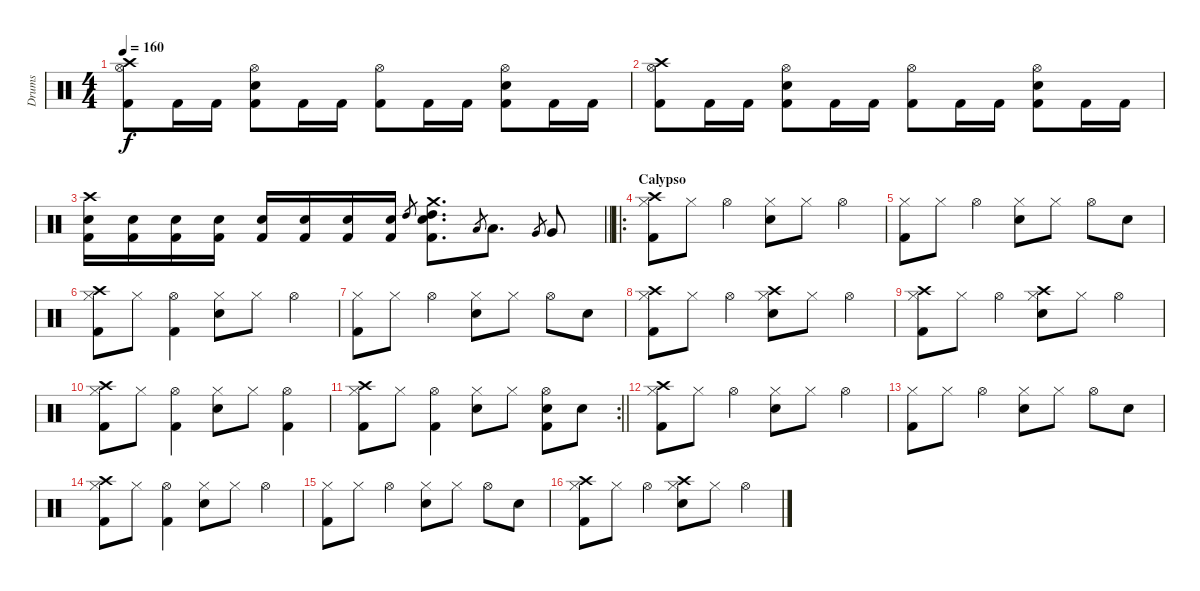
\track ("Drums" "Drums") {instrument percussion}
\staff {score}
\articulation defaults
\ts (4 4)
\tempo 160
\clef neutral
\ks c
("Crash high (hit)" "Hi-Hat (open)" "Kick (hit) 2").8{dy f} "Kick (hit) 2".16 "Kick (hit) 2".16 ("Hi-Hat (open)" "Snare (hit) 2" "Kick (hit) 2").8 "Kick (hit) 2".16 "Kick (hit) 2".16 ("Hi-Hat (open)" "Kick (hit) 2").8 "Kick (hit) 2".16 "Kick (hit) 2".16 ("Hi-Hat (open)" "Snare (hit) 2" "Kick (hit) 2").8 "Kick (hit) 2".16 "Kick (hit) 2".16 |
("Crash high (hit)" "Hi-Hat (open)" "Kick (hit) 2").8 "Kick (hit) 2".16 "Kick (hit) 2".16 ("Hi-Hat (open)" "Snare (hit) 2" "Kick (hit) 2").8 "Kick (hit) 2".16 "Kick (hit) 2".16 ("Hi-Hat (open)" "Kick (hit) 2").8 "Kick (hit) 2".16 "Kick (hit) 2".16 ("Hi-Hat (open)" "Snare (hit) 2" "Kick (hit) 2").8 "Kick (hit) 2".16 "Kick (hit) 2".16 |
\barLineRight lightlight
("Crash high (hit)" "Snare (hit) 2" "Kick (hit) 2").16 ("Snare (hit) 2" "Kick (hit) 2").16 ("Snare (hit) 2" "Kick (hit) 2").16 ("Snare (hit) 2" "Kick (hit) 2").16 ("Snare (hit) 2" "Kick (hit) 2").16 ("Snare (hit) 2" "Kick (hit) 2").16 ("Snare (hit) 2" "Kick (hit) 2").16 ("Snare (hit) 2" "Kick (hit) 2").16 "High Tom (hit)".8{gr} ("Crash medium (hit)" "High Tom (hit)" "Snare (hit) 2" "Kick (hit) 2").8{d} "Low Tom (hit)".8{gr} "Low Tom (hit)".8{d} "Very Low Tom (hit)".8{gr} "Very Low Tom (hit)".8 |
\ro
\section ("" "Calypso")
("Crash high (hit)" "Hi-Hat (closed)" "Kick (hit) 2").8 "Hi-Hat (closed)".8 "Hi-Hat (open)".4 ("Hi-Hat (closed)" "Snare (hit) 2").8 "Hi-Hat (closed)".8 "Hi-Hat (open)".4 |
("Hi-Hat (closed)" "Kick (hit) 2").8 "Hi-Hat (closed)".8 "Hi-Hat (open)".4 ("Hi-Hat (closed)" "Snare (hit) 2").8 "Hi-Hat (closed)".8 "Hi-Hat (open)".8 "Snare (hit) 2".8 |
("Crash high (hit)" "Hi-Hat (closed)" "Kick (hit) 2").8 "Hi-Hat (closed)".8 ("Hi-Hat (open)" "Kick (hit) 2").4 ("Hi-Hat (closed)" "Snare (hit) 2").8 "Hi-Hat (closed)".8 "Hi-Hat (open)".4 |
("Hi-Hat (closed)" "Kick (hit) 2").8 "Hi-Hat (closed)".8 "Hi-Hat (open)".4 ("Hi-Hat (closed)" "Snare (hit) 2").8 "Hi-Hat (closed)".8 "Hi-Hat (open)".8 "Snare (hit) 2".8 |
("Crash high (hit)" "Hi-Hat (closed)" "Kick (hit) 2").8 "Hi-Hat (closed)".8 "Hi-Hat (open)".4 ("Crash high (hit)" "Hi-Hat (closed)" "Snare (hit) 2").8 "Hi-Hat (closed)".8 "Hi-Hat (open)".4 |
("Crash high (hit)" "Hi-Hat (closed)" "Kick (hit) 2").8 "Hi-Hat (closed)".8 "Hi-Hat (open)".4 ("Crash high (hit)" "Hi-Hat (closed)" "Snare (hit) 2").8 "Hi-Hat (closed)".8 "Hi-Hat (open)".4 |
("Crash high (hit)" "Hi-Hat (closed)" "Kick (hit) 2").8 "Hi-Hat (closed)".8 ("Hi-Hat (open)" "Kick (hit) 2").4 ("Hi-Hat (closed)" "Snare (hit) 2").8 "Hi-Hat (closed)".8 ("Hi-Hat (open)" "Kick (hit) 2").4 |
\rc 2
\barLineRight lightlight
("Crash high (hit)" "Hi-Hat (closed)" "Kick (hit) 2").8 "Hi-Hat (closed)".8 ("Hi-Hat (open)" "Kick (hit) 2").4 ("Hi-Hat (closed)" "Snare (hit) 2").8 "Hi-Hat (closed)".8 ("Hi-Hat (open)" "Snare (hit) 2" "Kick (hit) 2").8 "Snare (hit) 2".8 |
("Crash high (hit)" "Hi-Hat (closed)" "Kick (hit) 2").8 "Hi-Hat (closed)".8 "Hi-Hat (open)".4 ("Hi-Hat (closed)" "Snare (hit) 2").8 "Hi-Hat (closed)".8 "Hi-Hat (open)".4 |
("Hi-Hat (closed)" "Kick (hit) 2").8 "Hi-Hat (closed)".8 "Hi-Hat (open)".4 ("Hi-Hat (closed)" "Snare (hit) 2").8 "Hi-Hat (closed)".8 "Hi-Hat (open)".8 "Snare (hit) 2".8 |
("Crash high (hit)" "Hi-Hat (closed)" "Kick (hit) 2").8 "Hi-Hat (closed)".8 ("Hi-Hat (open)" "Kick (hit) 2").4 ("Hi-Hat (closed)" "Snare (hit) 2").8 "Hi-Hat (closed)".8 "Hi-Hat (open)".4 |
("Hi-Hat (closed)" "Kick (hit) 2").8 "Hi-Hat (closed)".8 "Hi-Hat (open)".4 ("Hi-Hat (closed)" "Snare (hit) 2").8 "Hi-Hat (closed)".8 "Hi-Hat (open)".8 "Snare (hit) 2".8 |
("Crash high (hit)" "Hi-Hat (closed)" "Kick (hit) 2").8 "Hi-Hat (closed)".8 "Hi-Hat (open)".4 ("Crash high (hit)" "Hi-Hat (closed)" "Snare (hit) 2").8 "Hi-Hat (closed)".8 "Hi-Hat (open)".4
